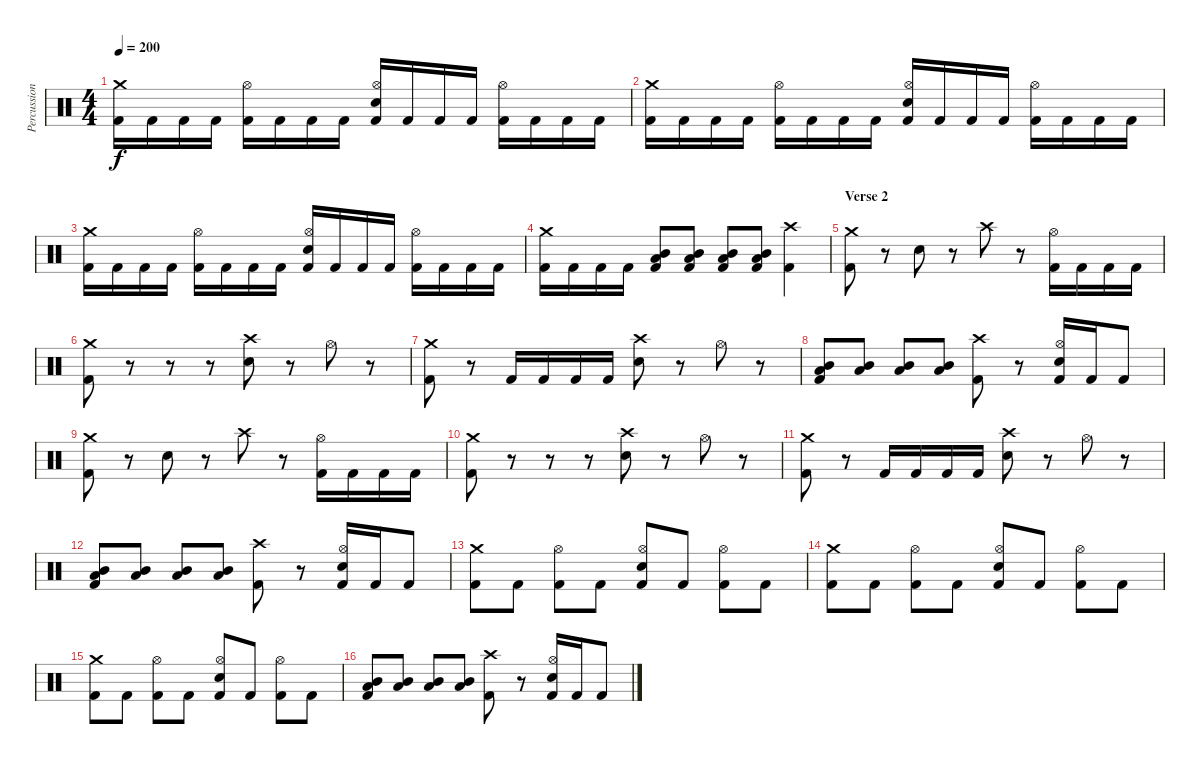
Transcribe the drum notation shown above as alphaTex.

\track ("Percussions" "Percussion") {instrument percussion}
\staff {score}
\articulation defaults
\ts (4 4)
\tempo 200
\clef neutral
\ks c
("Crash medium (hit)" "Kick (hit) 2").16{dy f} "Kick (hit) 2".16 "Kick (hit) 2".16 "Kick (hit) 2".16 ("Hi-Hat (open)" "Kick (hit) 2").16 "Kick (hit) 2".16 "Kick (hit) 2".16 "Kick (hit) 2".16 ("Hi-Hat (open)" "Electric Snare (hit)" "Kick (hit) 2").16 "Kick (hit) 2".16 "Kick (hit) 2".16 "Kick (hit) 2".16 ("Hi-Hat (open)" "Kick (hit) 2").16 "Kick (hit) 2".16 "Kick (hit) 2".16 "Kick (hit) 2".16 |
("Crash medium (hit)" "Kick (hit) 2").16 "Kick (hit) 2".16 "Kick (hit) 2".16 "Kick (hit) 2".16 ("Hi-Hat (open)" "Kick (hit) 2").16 "Kick (hit) 2".16 "Kick (hit) 2".16 "Kick (hit) 2".16 ("Hi-Hat (open)" "Electric Snare (hit)" "Kick (hit) 2").16 "Kick (hit) 2".16 "Kick (hit) 2".16 "Kick (hit) 2".16 ("Hi-Hat (open)" "Kick (hit) 2").16 "Kick (hit) 2".16 "Kick (hit) 2".16 "Kick (hit) 2".16 |
("Crash medium (hit)" "Kick (hit) 2").16 "Kick (hit) 2".16 "Kick (hit) 2".16 "Kick (hit) 2".16 ("Hi-Hat (open)" "Kick (hit) 2").16 "Kick (hit) 2".16 "Kick (hit) 2".16 "Kick (hit) 2".16 ("Hi-Hat (open)" "Electric Snare (hit)" "Kick (hit) 2").16 "Kick (hit) 2".16 "Kick (hit) 2".16 "Kick (hit) 2".16 ("Hi-Hat (open)" "Kick (hit) 2").16 "Kick (hit) 2".16 "Kick (hit) 2".16 "Kick (hit) 2".16 |
("Crash medium (hit)" "Kick (hit) 2").16 "Kick (hit) 2".16 "Kick (hit) 2".16 "Kick (hit) 2".16 ("Mid Tom (hit)" "Low Tom (hit)" "Kick (hit) 2").8 ("Mid Tom (hit)" "Low Tom (hit)" "Kick (hit) 2").8 ("Mid Tom (hit)" "Low Tom (hit)" "Kick (hit) 2").8 ("Mid Tom (hit)" "Low Tom (hit)" "Kick (hit) 2").8 ("Crash high (hit)" "Kick (hit) 2").4 |
\section ("" "Verse 2")
("Crash medium (hit)" "Kick (hit) 2").8 r.8 "Electric Snare (hit)".8 r.8 "Crash high (hit)".8 r.8 ("Hi-Hat (open)" "Kick (hit) 2").16 "Kick (hit) 2".16 "Kick (hit) 2".16 "Kick (hit) 2".16 |
("Crash medium (hit)" "Kick (hit) 2").8 r.8 r.8 r.8 ("Crash high (hit)" "Electric Snare (hit)").8 r.8 "Hi-Hat (open)".8 r.8 |
("Crash medium (hit)" "Kick (hit) 2").8 r.8 "Kick (hit) 2".16 "Kick (hit) 2".16 "Kick (hit) 2".16 "Kick (hit) 2".16 ("Crash high (hit)" "Electric Snare (hit)").8 r.8 "Hi-Hat (open)".8 r.8 |
("Mid Tom (hit)" "Low Tom (hit)" "Kick (hit) 2").8 ("Mid Tom (hit)" "Low Tom (hit)").8 ("Mid Tom (hit)" "Low Tom (hit)").8 ("Mid Tom (hit)" "Low Tom (hit)").8 ("Crash high (hit)" "Kick (hit) 2").8 r.8 ("Hi-Hat (open)" "Electric Snare (hit)" "Kick (hit) 2").16 "Kick (hit) 2".16 "Kick (hit) 2".8 |
("Crash medium (hit)" "Kick (hit) 2").8 r.8 "Electric Snare (hit)".8 r.8 "Crash high (hit)".8 r.8 ("Hi-Hat (open)" "Kick (hit) 2").16 "Kick (hit) 2".16 "Kick (hit) 2".16 "Kick (hit) 2".16 |
("Crash medium (hit)" "Kick (hit) 2").8 r.8 r.8 r.8 ("Crash high (hit)" "Electric Snare (hit)").8 r.8 "Hi-Hat (open)".8 r.8 |
("Crash medium (hit)" "Kick (hit) 2").8 r.8 "Kick (hit) 2".16 "Kick (hit) 2".16 "Kick (hit) 2".16 "Kick (hit) 2".16 ("Crash high (hit)" "Electric Snare (hit)").8 r.8 "Hi-Hat (open)".8 r.8 |
("Mid Tom (hit)" "Low Tom (hit)" "Kick (hit) 2").8 ("Mid Tom (hit)" "Low Tom (hit)").8 ("Mid Tom (hit)" "Low Tom (hit)").8 ("Mid Tom (hit)" "Low Tom (hit)").8 ("Crash high (hit)" "Kick (hit) 2").8 r.8 ("Hi-Hat (open)" "Electric Snare (hit)" "Kick (hit) 2").16 "Kick (hit) 2".16 "Kick (hit) 2".8 |
("Crash medium (hit)" "Kick (hit) 2").8 "Kick (hit) 2".8 ("Hi-Hat (open)" "Kick (hit) 2").8 "Kick (hit) 2".8 ("Hi-Hat (open)" "Electric Snare (hit)" "Kick (hit) 2").8 "Kick (hit) 2".8 ("Hi-Hat (open)" "Kick (hit) 2").8 "Kick (hit) 2".8 |
("Crash medium (hit)" "Kick (hit) 2").8 "Kick (hit) 2".8 ("Hi-Hat (open)" "Kick (hit) 2").8 "Kick (hit) 2".8 ("Hi-Hat (open)" "Electric Snare (hit)" "Kick (hit) 2").8 "Kick (hit) 2".8 ("Hi-Hat (open)" "Kick (hit) 2").8 "Kick (hit) 2".8 |
("Crash medium (hit)" "Kick (hit) 2").8 "Kick (hit) 2".8 ("Hi-Hat (open)" "Kick (hit) 2").8 "Kick (hit) 2".8 ("Hi-Hat (open)" "Electric Snare (hit)" "Kick (hit) 2").8 "Kick (hit) 2".8 ("Hi-Hat (open)" "Kick (hit) 2").8 "Kick (hit) 2".8 |
("Mid Tom (hit)" "Low Tom (hit)" "Kick (hit) 2").8 ("Mid Tom (hit)" "Low Tom (hit)").8 ("Mid Tom (hit)" "Low Tom (hit)").8 ("Mid Tom (hit)" "Low Tom (hit)").8 ("Crash high (hit)" "Kick (hit) 2").8 r.8 ("Hi-Hat (open)" "Electric Snare (hit)" "Kick (hit) 2").16 "Kick (hit) 2".16 "Kick (hit) 2".8
